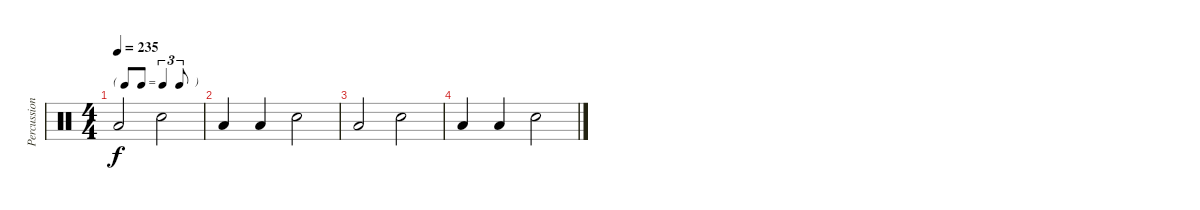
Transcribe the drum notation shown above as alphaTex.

\track ("Percussions" "Percussion") {instrument percussion}
\staff {score}
\articulation defaults
\ts (4 4)
\tf triplet8th
\tempo 235
\clef neutral
\ks c "Low Tom (hit)".2{dy f} "Snare (hit) 2".2
|
"Low Tom (hit)".4 "Low Tom (hit)".4 "Snare (hit) 2".2 |
"Low Tom (hit)".2 "Snare (hit) 2".2 |
"Low Tom (hit)".4 "Low Tom (hit)".4 "Snare (hit) 2".2
